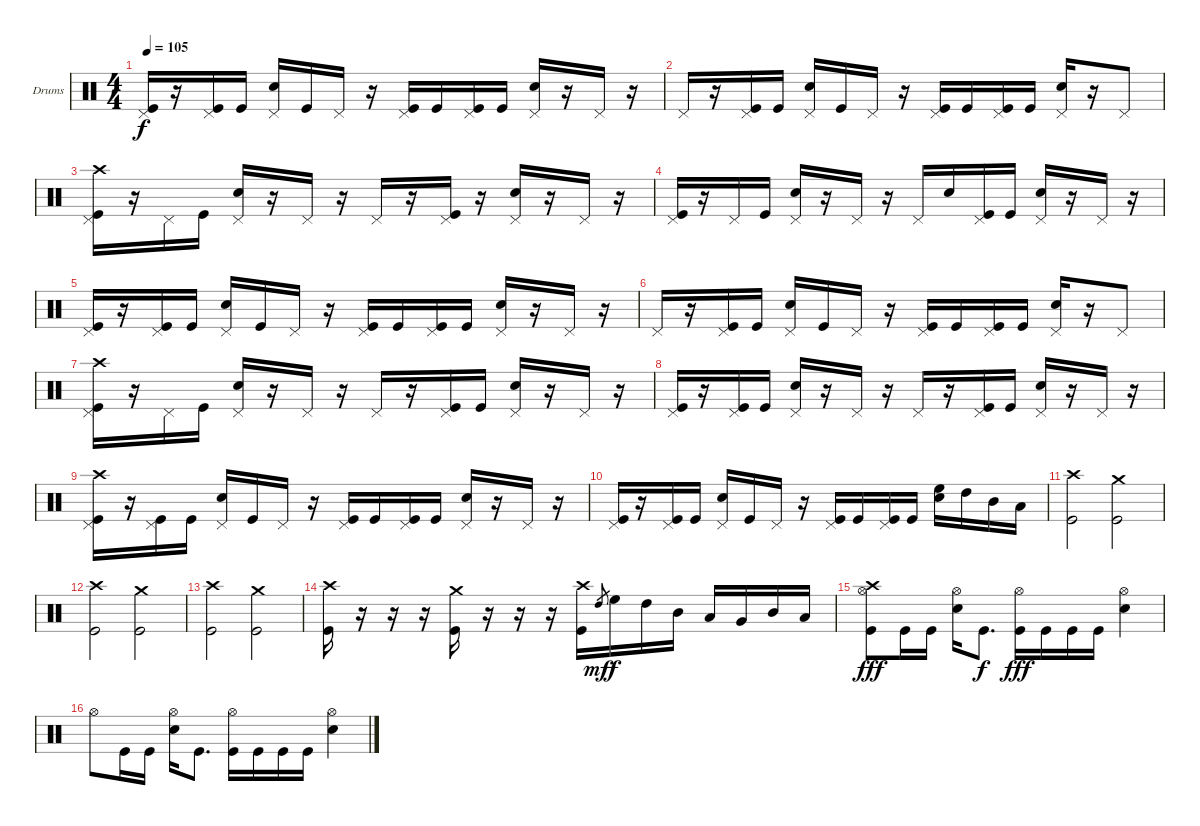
\bracketExtendMode groupsimilarinstruments
\firstSystemTrackNameOrientation horizontal
\otherSystemsTrackNameOrientation horizontal
\track ("Drumkit (Christoph)" "Drums") {instrument percussion}
\staff {score}
\articulation defaults
\ts (4 4)
\tempo 105
\clef neutral
\ks c
("Kick (hit)" "Pedal Hi-Hat (hit)").16{dy f} r.16 ("Pedal Hi-Hat (hit)" "Kick (hit)").16 "Kick (hit)".16 ("Pedal Hi-Hat (hit)" "Snare (hit) 2").16 "Kick (hit)".16 "Pedal Hi-Hat (hit)".16 r.16 ("Pedal Hi-Hat (hit)" "Kick (hit)").16 "Kick (hit)".16 ("Pedal Hi-Hat (hit)" "Kick (hit)").16 "Kick (hit)".16 ("Pedal Hi-Hat (hit)" "Snare (hit) 2").16 r.16 "Pedal Hi-Hat (hit)".16 r.16 |
"Pedal Hi-Hat (hit)".16 r.16 ("Pedal Hi-Hat (hit)" "Kick (hit)").16 "Kick (hit)".16 ("Pedal Hi-Hat (hit)" "Snare (hit) 2").16 "Kick (hit)".16 "Pedal Hi-Hat (hit)".16 r.16 ("Pedal Hi-Hat (hit)" "Kick (hit)").16 "Kick (hit)".16 ("Pedal Hi-Hat (hit)" "Kick (hit)").16 "Kick (hit)".16 ("Pedal Hi-Hat (hit)" "Snare (hit) 2").16 r.16 "Pedal Hi-Hat (hit)".8 |
("Pedal Hi-Hat (hit)" "Kick (hit)" "Crash high (hit)").16 r.16 "Pedal Hi-Hat (hit)".16 "Kick (hit)".16 ("Pedal Hi-Hat (hit)" "Snare (hit) 2").16 r.16 "Pedal Hi-Hat (hit)".16 r.16 "Pedal Hi-Hat (hit)".16 r.16 ("Pedal Hi-Hat (hit)" "Kick (hit)").16 r.16 ("Pedal Hi-Hat (hit)" "Snare (hit) 2").16 r.16 "Pedal Hi-Hat (hit)".16 r.16 |
("Pedal Hi-Hat (hit)" "Kick (hit)").16 r.16 "Pedal Hi-Hat (hit)".16 "Kick (hit)".16 ("Pedal Hi-Hat (hit)" "Snare (hit) 2").16 r.16 "Pedal Hi-Hat (hit)".16 r.16 "Pedal Hi-Hat (hit)".16 "Snare (hit) 2".16 ("Pedal Hi-Hat (hit)" "Kick (hit)").16 "Kick (hit)".16 ("Pedal Hi-Hat (hit)" "Snare (hit) 2").16 r.16 "Pedal Hi-Hat (hit)".16 r.16 |
("Kick (hit)" "Pedal Hi-Hat (hit)").16 r.16 ("Pedal Hi-Hat (hit)" "Kick (hit)").16 "Kick (hit)".16 ("Pedal Hi-Hat (hit)" "Snare (hit) 2").16 "Kick (hit)".16 "Pedal Hi-Hat (hit)".16 r.16 ("Pedal Hi-Hat (hit)" "Kick (hit)").16 "Kick (hit)".16 ("Pedal Hi-Hat (hit)" "Kick (hit)").16 "Kick (hit)".16 ("Pedal Hi-Hat (hit)" "Snare (hit) 2").16 r.16 "Pedal Hi-Hat (hit)".16 r.16 |
"Pedal Hi-Hat (hit)".16 r.16 ("Pedal Hi-Hat (hit)" "Kick (hit)").16 "Kick (hit)".16 ("Pedal Hi-Hat (hit)" "Snare (hit) 2").16 "Kick (hit)".16 "Pedal Hi-Hat (hit)".16 r.16 ("Pedal Hi-Hat (hit)" "Kick (hit)").16 "Kick (hit)".16 ("Pedal Hi-Hat (hit)" "Kick (hit)").16 "Kick (hit)".16 ("Pedal Hi-Hat (hit)" "Snare (hit) 2").16 r.16 "Pedal Hi-Hat (hit)".8 |
("Pedal Hi-Hat (hit)" "Kick (hit)" "Crash high (hit)").16 r.16 "Pedal Hi-Hat (hit)".16 "Kick (hit)".16 ("Pedal Hi-Hat (hit)" "Snare (hit) 2").16 r.16 "Pedal Hi-Hat (hit)".16 r.16 "Pedal Hi-Hat (hit)".16 r.16 ("Pedal Hi-Hat (hit)" "Kick (hit)").16 "Kick (hit)".16 ("Pedal Hi-Hat (hit)" "Snare (hit) 2").16 r.16 "Pedal Hi-Hat (hit)".16 r.16 |
("Pedal Hi-Hat (hit)" "Kick (hit)").16 r.16 ("Pedal Hi-Hat (hit)" "Kick (hit)").16 "Kick (hit)".16 ("Pedal Hi-Hat (hit)" "Snare (hit) 2").16 r.16 "Pedal Hi-Hat (hit)".16 r.16 "Pedal Hi-Hat (hit)".16 r.16 ("Pedal Hi-Hat (hit)" "Kick (hit)").16 "Kick (hit)".16 ("Pedal Hi-Hat (hit)" "Snare (hit) 2").16 r.16 "Pedal Hi-Hat (hit)".16 r.16 |
("Crash high (hit)" "Kick (hit)" "Pedal Hi-Hat (hit)").16 r.16 ("Pedal Hi-Hat (hit)" "Kick (hit)").16 "Kick (hit)".16 ("Pedal Hi-Hat (hit)" "Snare (hit) 2").16 "Kick (hit)".16 "Pedal Hi-Hat (hit)".16 r.16 ("Pedal Hi-Hat (hit)" "Kick (hit)").16 "Kick (hit)".16 ("Pedal Hi-Hat (hit)" "Kick (hit)").16 "Kick (hit)".16 ("Pedal Hi-Hat (hit)" "Snare (hit) 2").16 r.16 "Pedal Hi-Hat (hit)".16 r.16 |
("Kick (hit)" "Pedal Hi-Hat (hit)").16 r.16 ("Pedal Hi-Hat (hit)" "Kick (hit)").16 "Kick (hit)".16 ("Pedal Hi-Hat (hit)" "Snare (hit) 2").16 "Kick (hit)".16 "Pedal Hi-Hat (hit)".16 r.16 ("Pedal Hi-Hat (hit)" "Kick (hit)").16 "Kick (hit)".16 ("Pedal Hi-Hat (hit)" "Kick (hit)").16 "Kick (hit)".16 ("Snare (hit) 2" "High Floor Tom (hit)").16 "High Tom (hit)".16 "Mid Tom (hit)".16 "Low Tom (hit)".16 |
("Crash high (hit)" "Kick (hit)").2 ("Crash medium (hit)" "Kick (hit)").2 |
("Crash high (hit)" "Kick (hit)").2 ("Crash medium (hit)" "Kick (hit)").2 |
("Crash high (hit)" "Kick (hit)").2 ("Crash medium (hit)" "Kick (hit)").2 |
("Crash high (hit)" "Kick (hit)").16 r.16 r.16 r.16 ("Crash medium (hit)" "Kick (hit)").16 r.16 r.16 r.16 ("Crash high (hit)" "Kick (hit)").16 "High Tom (hit)".8{gr dy mf} "High Floor Tom (hit)".16{dy f} "High Tom (hit)".16 "Mid Tom (hit)".16 "Low Tom (hit)".16 "Very Low Tom (hit)".16 "Mid Tom (hit)".16 "Low Tom (hit)".16 |
("Crash high (hit)" "Kick (hit)" "Hi-Hat (open)").8{dy fff} "Kick (hit)".16 "Kick (hit)".16 ("Hi-Hat (open)" "Snare (hit) 2").16 "Kick (hit)".8{d dy f} ("Hi-Hat (open)" "Kick (hit)").16{dy fff} "Kick (hit)".16 "Kick (hit)".16 "Kick (hit)".16 ("Hi-Hat (open)" "Snare (hit) 2").4 |
"Hi-Hat (open)".8 "Kick (hit)".16 "Kick (hit)".16 ("Hi-Hat (open)" "Snare (hit) 2").16 "Kick (hit)".8{d} ("Hi-Hat (open)" "Kick (hit)").16 "Kick (hit)".16 "Kick (hit)".16 "Kick (hit)".16 ("Hi-Hat (open)" "Snare (hit) 2").4
